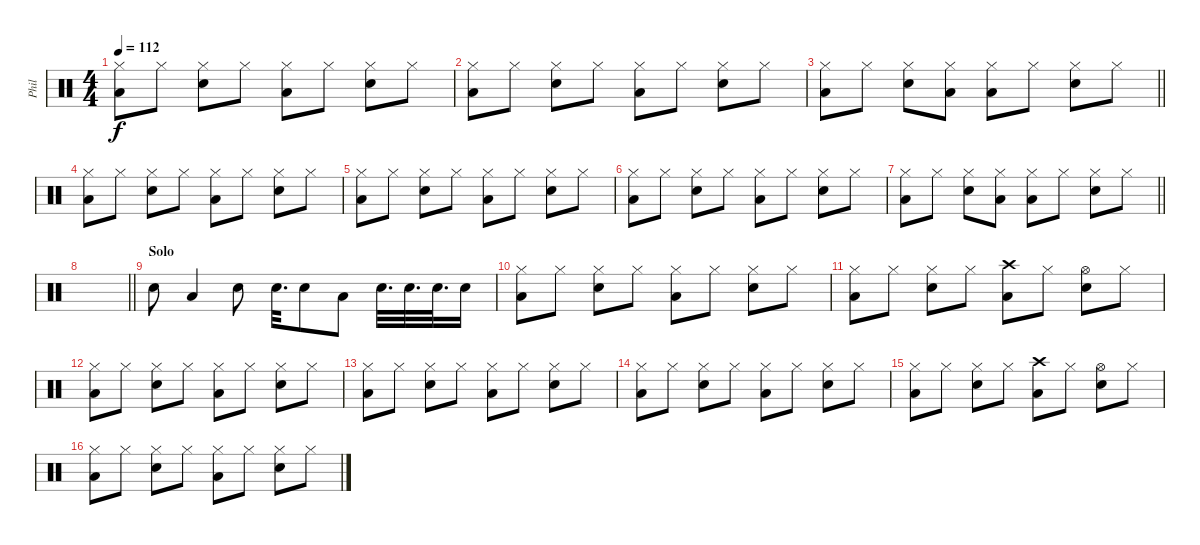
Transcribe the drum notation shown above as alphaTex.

\track ("Phil" "Phil") {instrument percussion}
\staff {score}
\articulation defaults
\ts (4 4)
\tempo 112
\clef neutral
\ks c
("Hi-Hat (closed)" "Low Floor Tom (hit)").8{dy f} "Hi-Hat (closed)".8 ("Hi-Hat (closed)" "Snare (hit) 2").8 "Hi-Hat (closed)".8 ("Hi-Hat (closed)" "Low Floor Tom (hit)").8 "Hi-Hat (closed)".8 ("Hi-Hat (closed)" "Snare (hit) 2").8 "Hi-Hat (closed)".8 |
("Hi-Hat (closed)" "Low Floor Tom (hit)").8 "Hi-Hat (closed)".8 ("Hi-Hat (closed)" "Snare (hit) 2").8 "Hi-Hat (closed)".8 ("Hi-Hat (closed)" "Low Floor Tom (hit)").8 "Hi-Hat (closed)".8 ("Hi-Hat (closed)" "Snare (hit) 2").8 "Hi-Hat (closed)".8 |
\barLineRight lightlight
("Hi-Hat (closed)" "Low Floor Tom (hit)").8 "Hi-Hat (closed)".8 ("Hi-Hat (closed)" "Snare (hit) 2").8 ("Hi-Hat (closed)" "Low Floor Tom (hit)").8 ("Hi-Hat (closed)" "Low Floor Tom (hit)").8 "Hi-Hat (closed)".8 ("Hi-Hat (closed)" "Snare (hit) 2").8 "Hi-Hat (closed)".8 |
("Hi-Hat (closed)" "Low Floor Tom (hit)").8 "Hi-Hat (closed)".8 ("Hi-Hat (closed)" "Snare (hit) 2").8 "Hi-Hat (closed)".8 ("Hi-Hat (closed)" "Low Floor Tom (hit)").8 "Hi-Hat (closed)".8 ("Hi-Hat (closed)" "Snare (hit) 2").8 "Hi-Hat (closed)".8 |
("Hi-Hat (closed)" "Low Floor Tom (hit)").8 "Hi-Hat (closed)".8 ("Hi-Hat (closed)" "Snare (hit) 2").8 "Hi-Hat (closed)".8 ("Hi-Hat (closed)" "Low Floor Tom (hit)").8 "Hi-Hat (closed)".8 ("Hi-Hat (closed)" "Snare (hit) 2").8 "Hi-Hat (closed)".8 |
("Hi-Hat (closed)" "Low Floor Tom (hit)").8 "Hi-Hat (closed)".8 ("Hi-Hat (closed)" "Snare (hit) 2").8 "Hi-Hat (closed)".8 ("Hi-Hat (closed)" "Low Floor Tom (hit)").8 "Hi-Hat (closed)".8 ("Hi-Hat (closed)" "Snare (hit) 2").8 "Hi-Hat (closed)".8 |
\barLineRight lightlight
("Hi-Hat (closed)" "Low Floor Tom (hit)").8 "Hi-Hat (closed)".8 ("Hi-Hat (closed)" "Snare (hit) 2").8 ("Hi-Hat (closed)" "Low Floor Tom (hit)").8 ("Hi-Hat (closed)" "Low Floor Tom (hit)").8 "Hi-Hat (closed)".8 ("Hi-Hat (closed)" "Snare (hit) 2").8 "Hi-Hat (closed)".8 |
\barLineRight lightlight
|
\section ("" "Solo")
"Snare (hit) 2".8 "Low Floor Tom (hit)".4 "Snare (hit) 2".8 "Snare (hit) 2".32{d} "Snare (hit) 2".8 "Low Floor Tom (hit)".8 "Snare (hit) 2".32{d} "Snare (hit) 2".32{d} "Snare (hit) 2".32{d} "Snare (hit) 2".16 |
("Hi-Hat (closed)" "Low Floor Tom (hit)").8 "Hi-Hat (closed)".8 ("Hi-Hat (closed)" "Snare (hit) 2").8 "Hi-Hat (closed)".8 ("Hi-Hat (closed)" "Low Floor Tom (hit)").8 "Hi-Hat (closed)".8 ("Hi-Hat (closed)" "Snare (hit) 2").8 "Hi-Hat (closed)".8 |
("Hi-Hat (closed)" "Low Floor Tom (hit)").8 "Hi-Hat (closed)".8 ("Hi-Hat (closed)" "Snare (hit) 2").8 "Hi-Hat (closed)".8 ("Crash high (hit)" "Low Floor Tom (hit)").8 "Hi-Hat (closed)".8 ("Hi-Hat (open)" "Snare (hit) 2").8 "Hi-Hat (closed)".8 |
("Hi-Hat (closed)" "Low Floor Tom (hit)").8 "Hi-Hat (closed)".8 ("Hi-Hat (closed)" "Snare (hit) 2").8 "Hi-Hat (closed)".8 ("Hi-Hat (closed)" "Low Floor Tom (hit)").8 "Hi-Hat (closed)".8 ("Hi-Hat (closed)" "Snare (hit) 2").8 "Hi-Hat (closed)".8 |
("Hi-Hat (closed)" "Low Floor Tom (hit)").8 "Hi-Hat (closed)".8 ("Hi-Hat (closed)" "Snare (hit) 2").8 "Hi-Hat (closed)".8 ("Hi-Hat (closed)" "Low Floor Tom (hit)").8 "Hi-Hat (closed)".8 ("Hi-Hat (closed)" "Snare (hit) 2").8 "Hi-Hat (closed)".8 |
("Hi-Hat (closed)" "Low Floor Tom (hit)").8 "Hi-Hat (closed)".8 ("Hi-Hat (closed)" "Snare (hit) 2").8 "Hi-Hat (closed)".8 ("Hi-Hat (closed)" "Low Floor Tom (hit)").8 "Hi-Hat (closed)".8 ("Hi-Hat (closed)" "Snare (hit) 2").8 "Hi-Hat (closed)".8 |
("Hi-Hat (closed)" "Low Floor Tom (hit)").8 "Hi-Hat (closed)".8 ("Hi-Hat (closed)" "Snare (hit) 2").8 "Hi-Hat (closed)".8 ("Crash high (hit)" "Low Floor Tom (hit)").8 "Hi-Hat (closed)".8 ("Hi-Hat (open)" "Snare (hit) 2").8 "Hi-Hat (closed)".8 |
("Hi-Hat (closed)" "Low Floor Tom (hit)").8 "Hi-Hat (closed)".8 ("Hi-Hat (closed)" "Snare (hit) 2").8 "Hi-Hat (closed)".8 ("Hi-Hat (closed)" "Low Floor Tom (hit)").8 "Hi-Hat (closed)".8 ("Hi-Hat (closed)" "Snare (hit) 2").8 "Hi-Hat (closed)".8
